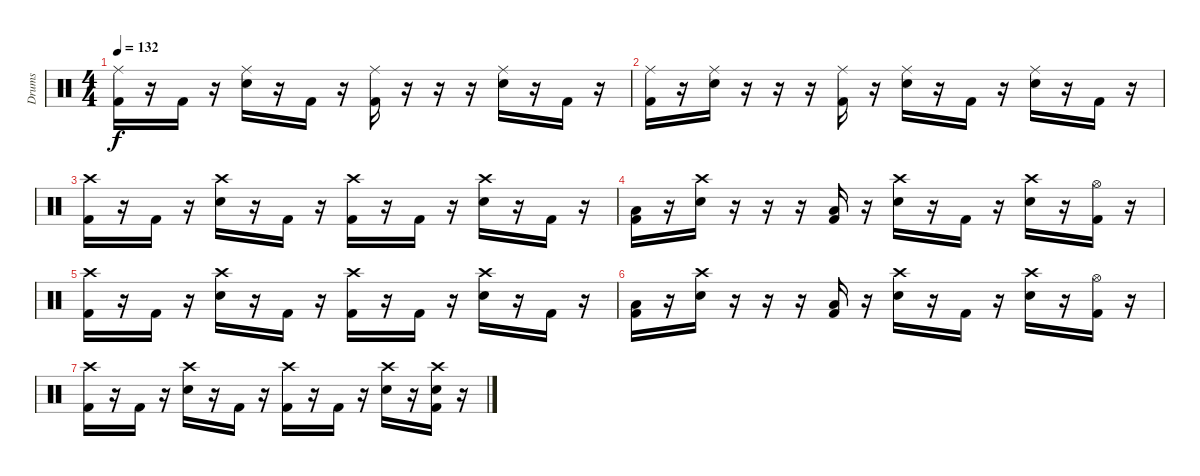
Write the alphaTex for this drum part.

\track ("Drums" "Drums") {instrument percussion}
\staff {score}
\articulation defaults
\ts (4 4)
\tempo 132
\clef neutral
\ks c
("Ride (middle)" "Kick (hit) 2").16{dy f} r.16 "Kick (hit) 2".16 r.16 ("Ride (middle)" "Snare (hit) 2").16 r.16 "Kick (hit) 2".16 r.16 ("Ride (middle)" "Kick (hit) 2").16 r.16 r.16 r.16 ("Ride (middle)" "Snare (hit) 2").16 r.16 "Kick (hit) 2".16 r.16 |
("Ride (middle)" "Kick (hit) 2").16 r.16 ("Ride (middle)" "Snare (hit) 2").16 r.16 r.16 r.16 ("Ride (middle)" "Kick (hit) 2").16 r.16 ("Ride (middle)" "Snare (hit) 2").16 r.16 "Kick (hit) 2".16 r.16 ("Ride (middle)" "Snare (hit) 2").16 r.16 "Kick (hit) 2".16 r.16 |
("Crash high (hit)" "Kick (hit) 2").16 r.16 "Kick (hit) 2".16 r.16 ("Crash high (hit)" "Snare (hit) 2").16 r.16 "Kick (hit) 2".16 r.16 ("Crash high (hit)" "Kick (hit) 2").16 r.16 "Kick (hit) 2".16 r.16 ("Crash high (hit)" "Snare (hit) 2").16 r.16 "Kick (hit) 2".16 r.16 |
("Low Tom (hit)" "Kick (hit) 2").16 r.16 ("Crash high (hit)" "Snare (hit) 2").16 r.16 r.16 r.16 ("Low Tom (hit)" "Kick (hit) 2").16 r.16 ("Crash high (hit)" "Snare (hit) 2").16 r.16 "Kick (hit) 2".16 r.16 ("Crash high (hit)" "Snare (hit) 2").16 r.16 ("Hi-Hat (open)" "Kick (hit) 2").16 r.16 |
("Crash high (hit)" "Kick (hit) 2").16 r.16 "Kick (hit) 2".16 r.16 ("Crash high (hit)" "Snare (hit) 2").16 r.16 "Kick (hit) 2".16 r.16 ("Crash high (hit)" "Kick (hit) 2").16 r.16 "Kick (hit) 2".16 r.16 ("Crash high (hit)" "Snare (hit) 2").16 r.16 "Kick (hit) 2".16 r.16 |
("Low Tom (hit)" "Kick (hit) 2").16 r.16 ("Crash high (hit)" "Snare (hit) 2").16 r.16 r.16 r.16 ("Low Tom (hit)" "Kick (hit) 2").16 r.16 ("Crash high (hit)" "Snare (hit) 2").16 r.16 "Kick (hit) 2".16 r.16 ("Crash high (hit)" "Snare (hit) 2").16 r.16 ("Hi-Hat (open)" "Kick (hit) 2").16 r.16 |
("Crash high (hit)" "Kick (hit) 2").16 r.16 "Kick (hit) 2".16 r.16 ("Crash high (hit)" "Snare (hit) 2").16 r.16 "Kick (hit) 2".16 r.16 ("Crash high (hit)" "Kick (hit) 2").16 r.16 "Kick (hit) 2".16 r.16 ("Crash high (hit)" "Snare (hit) 2").16 r.16 ("Crash high (hit)" "Snare (hit) 2" "Kick (hit) 2").16 r.16
